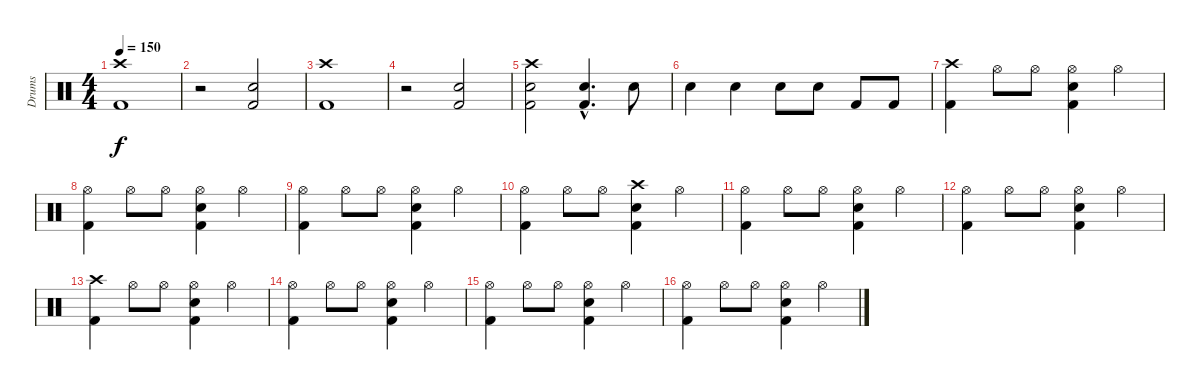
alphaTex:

\track ("Drums" "Drums") {instrument percussion}
\staff {score}
\articulation defaults
\ts (4 4)
\tempo 150
\clef neutral
\ks c
("Crash high (hit)" "Kick (hit) 2").1{dy f volume 16} |
r.2 ("Snare (hit) 2" "Kick (hit) 2").2 |
("Crash high (hit)" "Kick (hit) 2").1 |
r.2 ("Snare (hit) 2" "Kick (hit) 2").2 |
("Crash high (hit)" "Electric Snare (hit)" "Kick (hit) 2").2 ("Electric Snare (hit)"{hac} "Kick (hit) 2"{hac}).4{d} "Electric Snare (hit)".8 |
"Electric Snare (hit)".4 "Snare (hit) 2".4 "Snare (hit) 2".8 "Snare (hit) 2".8 "Kick (hit) 2".8 "Kick (hit) 2".8 |
("Crash high (hit)" "Kick (hit) 2").4 "Hi-Hat (open)".8 "Hi-Hat (open)".8 ("Hi-Hat (open)" "Electric Snare (hit)" "Kick (hit) 2").4 "Hi-Hat (open)".4 |
("Hi-Hat (open)" "Kick (hit) 2").4 "Hi-Hat (open)".8 "Hi-Hat (open)".8 ("Hi-Hat (open)" "Electric Snare (hit)" "Kick (hit) 2").4 "Hi-Hat (open)".4 |
("Hi-Hat (open)" "Kick (hit) 2").4 "Hi-Hat (open)".8 "Hi-Hat (open)".8 ("Hi-Hat (open)" "Electric Snare (hit)" "Kick (hit) 2").4 "Hi-Hat (open)".4 |
("Hi-Hat (open)" "Kick (hit) 2").4 "Hi-Hat (open)".8 "Hi-Hat (open)".8 ("Crash high (hit)" "Electric Snare (hit)" "Kick (hit) 2").4 "Hi-Hat (open)".4 |
("Hi-Hat (open)" "Kick (hit) 2").4 "Hi-Hat (open)".8 "Hi-Hat (open)".8 ("Hi-Hat (open)" "Electric Snare (hit)" "Kick (hit) 2").4 "Hi-Hat (open)".4 |
("Hi-Hat (open)" "Kick (hit) 2").4 "Hi-Hat (open)".8 "Hi-Hat (open)".8 ("Hi-Hat (open)" "Electric Snare (hit)" "Kick (hit) 2").4 "Hi-Hat (open)".4 |
("Crash high (hit)" "Kick (hit) 2").4 "Hi-Hat (open)".8 "Hi-Hat (open)".8 ("Hi-Hat (open)" "Electric Snare (hit)" "Kick (hit) 2").4 "Hi-Hat (open)".4 |
("Hi-Hat (open)" "Kick (hit) 2").4 "Hi-Hat (open)".8 "Hi-Hat (open)".8 ("Hi-Hat (open)" "Electric Snare (hit)" "Kick (hit) 2").4 "Hi-Hat (open)".4 |
("Hi-Hat (open)" "Kick (hit) 2").4 "Hi-Hat (open)".8 "Hi-Hat (open)".8 ("Hi-Hat (open)" "Electric Snare (hit)" "Kick (hit) 2").4 "Hi-Hat (open)".4 |
("Hi-Hat (open)" "Kick (hit) 2").4 "Hi-Hat (open)".8 "Hi-Hat (open)".8 ("Hi-Hat (open)" "Electric Snare (hit)" "Kick (hit) 2").4 "Hi-Hat (open)".4
